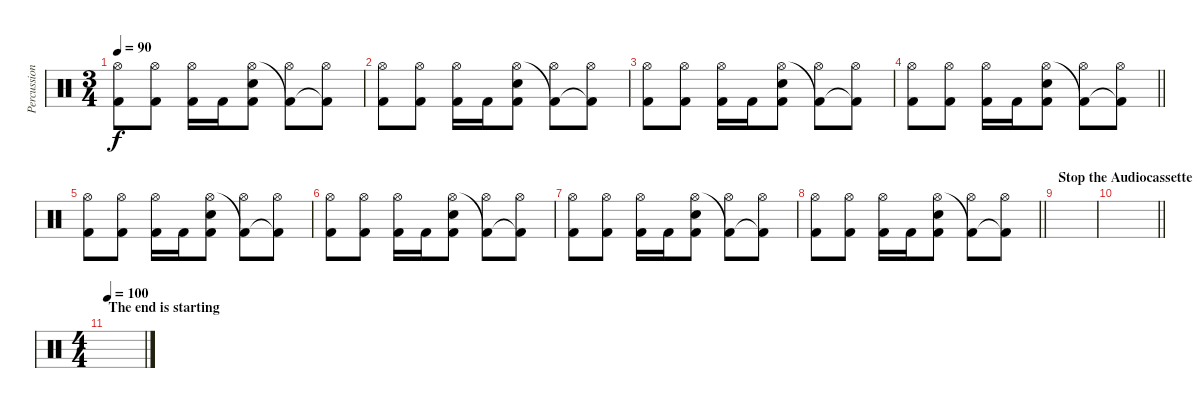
\track ("Percussioni" "Percussion") {instrument percussion}
\staff {score}
\articulation defaults
\ts (3 4)
\tempo 90
\clef neutral
\ks c
("Hi-Hat (open)" "Kick (hit) 2").8{dy f} ("Hi-Hat (open)" "Kick (hit) 2").8 ("Hi-Hat (open)" "Kick (hit) 2").16 "Kick (hit) 2".16 ("Snare (hit) 2" "Hi-Hat (open)" "Kick (hit) 2").8 ("Hi-Hat (open)" "Kick (hit) 2"{t}).8 ("Hi-Hat (open)" "Kick (hit) 2"{t}).8 |
("Hi-Hat (open)" "Kick (hit) 2").8 ("Hi-Hat (open)" "Kick (hit) 2").8 ("Hi-Hat (open)" "Kick (hit) 2").16 "Kick (hit) 2".16 ("Snare (hit) 2" "Hi-Hat (open)" "Kick (hit) 2").8 ("Hi-Hat (open)" "Kick (hit) 2"{t}).8 ("Hi-Hat (open)" "Kick (hit) 2"{t}).8 |
("Hi-Hat (open)" "Kick (hit) 2").8 ("Hi-Hat (open)" "Kick (hit) 2").8 ("Hi-Hat (open)" "Kick (hit) 2").16 "Kick (hit) 2".16 ("Snare (hit) 2" "Hi-Hat (open)" "Kick (hit) 2").8 ("Hi-Hat (open)" "Kick (hit) 2"{t}).8 ("Hi-Hat (open)" "Kick (hit) 2"{t}).8 |
\barLineRight lightlight
("Hi-Hat (open)" "Kick (hit) 2").8 ("Hi-Hat (open)" "Kick (hit) 2").8 ("Hi-Hat (open)" "Kick (hit) 2").16 "Kick (hit) 2".16 ("Snare (hit) 2" "Hi-Hat (open)" "Kick (hit) 2").8 ("Hi-Hat (open)" "Kick (hit) 2"{t}).8 ("Hi-Hat (open)" "Kick (hit) 2"{t}).8 |
("Hi-Hat (open)" "Kick (hit) 2").8 ("Hi-Hat (open)" "Kick (hit) 2").8 ("Hi-Hat (open)" "Kick (hit) 2").16 "Kick (hit) 2".16 ("Snare (hit) 2" "Hi-Hat (open)" "Kick (hit) 2").8 ("Hi-Hat (open)" "Kick (hit) 2"{t}).8 ("Hi-Hat (open)" "Kick (hit) 2"{t}).8 |
("Hi-Hat (open)" "Kick (hit) 2").8 ("Hi-Hat (open)" "Kick (hit) 2").8 ("Hi-Hat (open)" "Kick (hit) 2").16 "Kick (hit) 2".16 ("Snare (hit) 2" "Hi-Hat (open)" "Kick (hit) 2").8 ("Hi-Hat (open)" "Kick (hit) 2"{t}).8 ("Hi-Hat (open)" "Kick (hit) 2"{t}).8 |
("Hi-Hat (open)" "Kick (hit) 2").8 ("Hi-Hat (open)" "Kick (hit) 2").8 ("Hi-Hat (open)" "Kick (hit) 2").16 "Kick (hit) 2".16 ("Snare (hit) 2" "Hi-Hat (open)" "Kick (hit) 2").8 ("Hi-Hat (open)" "Kick (hit) 2"{t}).8 ("Hi-Hat (open)" "Kick (hit) 2"{t}).8 |
\barLineRight lightlight
("Hi-Hat (open)" "Kick (hit) 2").8 ("Hi-Hat (open)" "Kick (hit) 2").8 ("Hi-Hat (open)" "Kick (hit) 2").16 "Kick (hit) 2".16 ("Snare (hit) 2" "Hi-Hat (open)" "Kick (hit) 2").8 ("Hi-Hat (open)" "Kick (hit) 2"{t}).8 ("Hi-Hat (open)" "Kick (hit) 2"{t}).8 |
\section ("" "Stop the Audiocassette")
|
\barLineRight lightlight
|
\ts (4 4)
\section ("" "The end is starting")
\tempo 100
